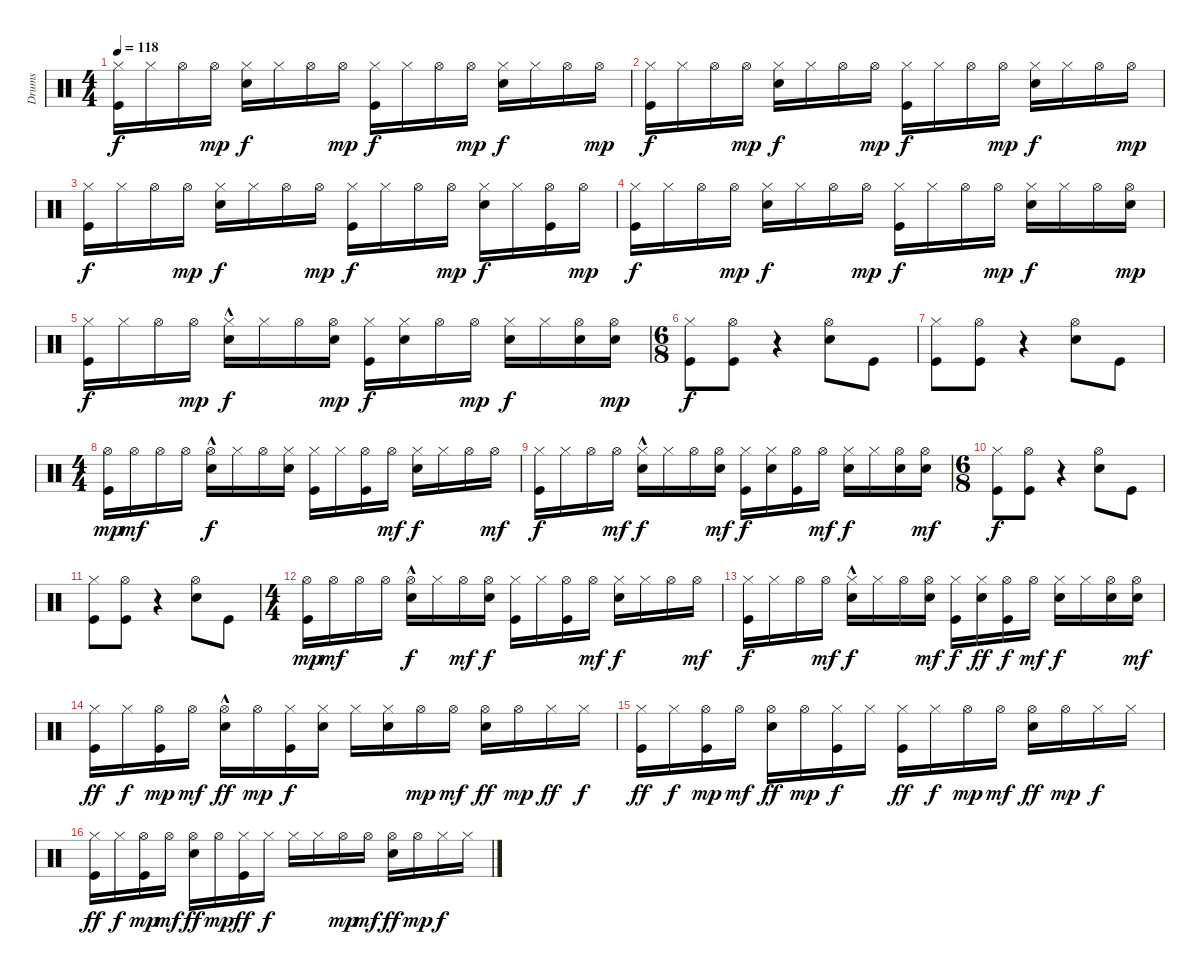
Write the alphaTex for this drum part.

\track ("Drums" "Drums") {instrument percussion}
\staff {score}
\articulation defaults
\ts (4 4)
\tempo 118
\clef neutral
\ks c
("Hi-Hat (closed)" "Kick (hit)").16{dy f} "Hi-Hat (closed)".16 "Hi-Hat (open)".16 "Hi-Hat (open)".16{dy mp} ("Hi-Hat (closed)" "Electric Snare (hit)").16{dy f} "Hi-Hat (closed)".16 "Hi-Hat (open)".16 "Hi-Hat (open)".16{dy mp} ("Kick (hit)" "Hi-Hat (closed)").16{dy f} "Hi-Hat (closed)".16 "Hi-Hat (open)".16 "Hi-Hat (open)".16{dy mp} ("Hi-Hat (closed)" "Electric Snare (hit)").16{dy f} "Hi-Hat (closed)".16 "Hi-Hat (open)".16 "Hi-Hat (open)".16{dy mp} |
("Hi-Hat (closed)" "Kick (hit)").16{dy f} "Hi-Hat (closed)".16 "Hi-Hat (open)".16 "Hi-Hat (open)".16{dy mp} ("Hi-Hat (closed)" "Electric Snare (hit)").16{dy f} "Hi-Hat (closed)".16 "Hi-Hat (open)".16 "Hi-Hat (open)".16{dy mp} ("Kick (hit)" "Hi-Hat (closed)").16{dy f} "Hi-Hat (closed)".16 "Hi-Hat (open)".16 "Hi-Hat (open)".16{dy mp} ("Hi-Hat (closed)" "Electric Snare (hit)").16{dy f} "Hi-Hat (closed)".16 "Hi-Hat (open)".16 "Hi-Hat (open)".16{dy mp} |
("Hi-Hat (closed)" "Kick (hit)").16{dy f} "Hi-Hat (closed)".16 "Hi-Hat (open)".16 "Hi-Hat (open)".16{dy mp} ("Electric Snare (hit)" "Hi-Hat (closed)").16{dy f} "Hi-Hat (closed)".16 "Hi-Hat (open)".16 "Hi-Hat (open)".16{dy mp} ("Kick (hit)" "Hi-Hat (closed)").16{dy f} "Hi-Hat (closed)".16 "Hi-Hat (open)".16 "Hi-Hat (open)".16{dy mp} ("Hi-Hat (closed)" "Electric Snare (hit)").16{dy f} "Hi-Hat (closed)".16 ("Kick (hit)" "Hi-Hat (open)").16 "Hi-Hat (open)".16{dy mp} |
("Hi-Hat (closed)" "Kick (hit)").16{dy f} "Hi-Hat (closed)".16 "Hi-Hat (open)".16 "Hi-Hat (open)".16{dy mp} ("Hi-Hat (closed)" "Electric Snare (hit)").16{dy f} "Hi-Hat (closed)".16 "Hi-Hat (open)".16 "Hi-Hat (open)".16{dy mp} ("Kick (hit)" "Hi-Hat (closed)").16{dy f} "Hi-Hat (closed)".16 "Hi-Hat (open)".16 "Hi-Hat (open)".16{dy mp} ("Hi-Hat (closed)" "Electric Snare (hit)").16{dy f} "Hi-Hat (closed)".16 "Hi-Hat (open)".16 ("Electric Snare (hit)" "Hi-Hat (open)").16{dy mp} |
("Hi-Hat (closed)" "Kick (hit)").16{dy f} "Hi-Hat (closed)".16 "Hi-Hat (open)".16 "Hi-Hat (open)".16{dy mp} ("Hi-Hat (closed)" "Electric Snare (hit)"{hac}).16{dy f} "Hi-Hat (closed)".16 "Hi-Hat (open)".16 ("Electric Snare (hit)" "Hi-Hat (open)").16{dy mp} ("Kick (hit)" "Hi-Hat (closed)").16{dy f} ("Electric Snare (hit)" "Hi-Hat (closed)").16 "Hi-Hat (open)".16 "Hi-Hat (open)".16{dy mp} ("Hi-Hat (closed)" "Electric Snare (hit)").16{dy f} "Hi-Hat (closed)".16 ("Electric Snare (hit)" "Hi-Hat (open)").16 ("Electric Snare (hit)" "Hi-Hat (open)").16{dy mp} |
\ts (6 8)
("Hi-Hat (closed)" "Kick (hit)").8{dy f} ("Hi-Hat (open)" "Kick (hit)").8 r.4 ("Hi-Hat (open)" "Electric Snare (hit)").8 "Kick (hit)".8 |
("Hi-Hat (closed)" "Kick (hit)").8 ("Hi-Hat (open)" "Kick (hit)").8 r.4 ("Electric Snare (hit)" "Hi-Hat (open)").8 "Kick (hit)".8 |
\ts (4 4)
("Kick (hit)" "Hi-Hat (open)").16{dy mp} "Hi-Hat (open)".16{dy mf} "Hi-Hat (open)".16 "Hi-Hat (open)".16 ("Electric Snare (hit)"{hac} "Hi-Hat (open)").16{dy f} "Hi-Hat (closed)".16 "Hi-Hat (open)".16 ("Electric Snare (hit)" "Hi-Hat (closed)").16 ("Hi-Hat (closed)" "Kick (hit)").16 "Hi-Hat (closed)".16 ("Hi-Hat (open)" "Kick (hit)").16 "Hi-Hat (open)".16{dy mf} ("Electric Snare (hit)" "Hi-Hat (closed)").16{dy f} "Hi-Hat (closed)".16 "Hi-Hat (open)".16 "Hi-Hat (open)".16{dy mf} |
("Hi-Hat (closed)" "Kick (hit)").16{dy f} "Hi-Hat (closed)".16 "Hi-Hat (open)".16 "Hi-Hat (open)".16{dy mf} ("Hi-Hat (closed)" "Electric Snare (hit)"{hac}).16{dy f} "Hi-Hat (closed)".16 "Hi-Hat (open)".16 ("Electric Snare (hit)" "Hi-Hat (open)").16{dy mf} ("Hi-Hat (closed)" "Kick (hit)").16{dy f} ("Electric Snare (hit)" "Hi-Hat (closed)").16 ("Hi-Hat (open)" "Kick (hit)").16 "Hi-Hat (open)".16{dy mf} ("Electric Snare (hit)" "Hi-Hat (closed)").16{dy f} "Hi-Hat (closed)".16 ("Hi-Hat (open)" "Electric Snare (hit)").16 ("Hi-Hat (open)" "Electric Snare (hit)").16{dy mf} |
\ts (6 8)
("Hi-Hat (closed)" "Kick (hit)").8{dy f} ("Hi-Hat (open)" "Kick (hit)").8 r.4 ("Hi-Hat (open)" "Electric Snare (hit)").8 "Kick (hit)".8 |
("Hi-Hat (closed)" "Kick (hit)").8 ("Hi-Hat (open)" "Kick (hit)").8 r.4 ("Electric Snare (hit)" "Hi-Hat (open)").8 "Kick (hit)".8 |
\ts (4 4)
("Kick (hit)" "Hi-Hat (open)").16{dy mp} "Hi-Hat (open)".16{dy mf} "Hi-Hat (open)".16 "Hi-Hat (open)".16 ("Electric Snare (hit)"{hac} "Hi-Hat (open)").16{dy f} "Hi-Hat (closed)".16 "Hi-Hat (open)".16{dy mf} ("Electric Snare (hit)" "Hi-Hat (open)").16{dy f} ("Hi-Hat (closed)" "Kick (hit)").16 "Hi-Hat (closed)".16 ("Hi-Hat (open)" "Kick (hit)").16 "Hi-Hat (open)".16{dy mf} ("Electric Snare (hit)" "Hi-Hat (closed)").16{dy f} "Hi-Hat (closed)".16 "Hi-Hat (open)".16 "Hi-Hat (open)".16{dy mf} |
("Hi-Hat (closed)" "Kick (hit)").16{dy f} "Hi-Hat (closed)".16 "Hi-Hat (open)".16 "Hi-Hat (open)".16{dy mf} ("Hi-Hat (closed)" "Electric Snare (hit)"{hac}).16{dy f} "Hi-Hat (closed)".16 "Hi-Hat (open)".16 ("Electric Snare (hit)" "Hi-Hat (open)").16{dy mf} ("Hi-Hat (closed)" "Kick (hit)").16{dy f} ("Electric Snare (hit)" "Hi-Hat (closed)").16{dy ff} ("Hi-Hat (open)" "Kick (hit)").16{dy f} "Hi-Hat (open)".16{dy mf} ("Electric Snare (hit)" "Hi-Hat (closed)").16{dy f} "Hi-Hat (closed)".16 ("Hi-Hat (open)" "Electric Snare (hit)").16 ("Hi-Hat (open)" "Electric Snare (hit)").16{dy mf} |
("Kick (hit)" "Hi-Hat (closed)").16{dy ff} "Hi-Hat (closed)".16{dy f} ("Kick (hit)" "Hi-Hat (open)").16{dy mp} "Hi-Hat (open)".16{dy mf} ("Electric Snare (hit)"{hac} "Hi-Hat (open)").16{dy ff} "Hi-Hat (open)".16{dy mp} ("Kick (hit)" "Hi-Hat (closed)").16{dy f} ("Electric Snare (hit)" "Hi-Hat (closed)").16 "Hi-Hat (closed)".16 ("Electric Snare (hit)" "Hi-Hat (closed)").16 "Hi-Hat (open)".16{dy mp} "Hi-Hat (open)".16{dy mf} ("Hi-Hat (open)" "Electric Snare (hit)").16{dy ff} "Hi-Hat (open)".16{dy mp} "Hi-Hat (closed)".16{dy ff} "Hi-Hat (closed)".16{dy f} |
("Kick (hit)" "Hi-Hat (closed)").16{dy ff} "Hi-Hat (closed)".16{dy f} ("Kick (hit)" "Hi-Hat (open)").16{dy mp} "Hi-Hat (open)".16{dy mf} ("Electric Snare (hit)" "Hi-Hat (open)").16{dy ff} "Hi-Hat (open)".16{dy mp} ("Kick (hit)" "Hi-Hat (closed)").16{dy f} "Hi-Hat (closed)".16 ("Kick (hit)" "Hi-Hat (closed)").16{dy ff} "Hi-Hat (closed)".16{dy f} "Hi-Hat (open)".16{dy mp} "Hi-Hat (open)".16{dy mf} ("Electric Snare (hit)" "Hi-Hat (open)").16{dy ff} "Hi-Hat (open)".16{dy mp} "Hi-Hat (closed)".16{dy f} "Hi-Hat (closed)".16 |
("Kick (hit)" "Hi-Hat (closed)").16{dy ff} "Hi-Hat (closed)".16{dy f} ("Kick (hit)" "Hi-Hat (open)").16{dy mp} "Hi-Hat (open)".16{dy mf} ("Electric Snare (hit)" "Hi-Hat (open)").16{dy ff} "Hi-Hat (open)".16{dy mp} ("Kick (hit)" "Hi-Hat (closed)").16{dy ff} "Hi-Hat (closed)".16{dy f} "Hi-Hat (closed)".16 "Hi-Hat (closed)".16 "Hi-Hat (open)".16{dy mp} "Hi-Hat (open)".16{dy mf} ("Electric Snare (hit)" "Hi-Hat (open)").16{dy ff} "Hi-Hat (open)".16{dy mp} "Hi-Hat (closed)".16{dy f} "Hi-Hat (closed)".16
